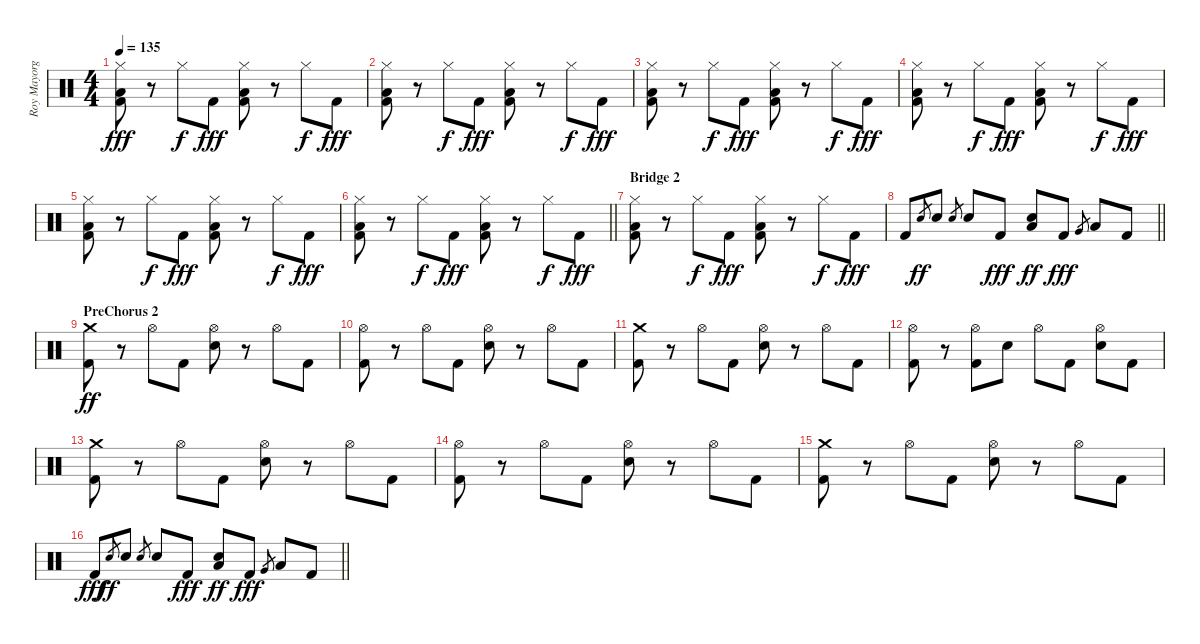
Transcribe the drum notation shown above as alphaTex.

\track ("Roy Mayorga" "Roy Mayorg") {instrument percussion}
\staff {score}
\articulation defaults
\ts (4 4)
\tempo 135
\clef neutral
\ks c
("Hi-Hat (closed)" "Low Floor Tom (hit)" "Kick (hit) 2").8{dy fff} r.8 "Hi-Hat (closed)".8{dy f} "Kick (hit) 2".8{dy fff} ("Hi-Hat (closed)" "Low Tom (hit)" "Kick (hit) 2").8 r.8 "Hi-Hat (closed)".8{dy f} "Kick (hit) 2".8{dy fff} |
("Hi-Hat (closed)" "Low Floor Tom (hit)" "Kick (hit) 2").8 r.8 "Hi-Hat (closed)".8{dy f} "Kick (hit) 2".8{dy fff} ("Hi-Hat (closed)" "Low Tom (hit)" "Kick (hit) 2").8 r.8 "Hi-Hat (closed)".8{dy f} "Kick (hit) 2".8{dy fff} |
("Hi-Hat (closed)" "Low Floor Tom (hit)" "Kick (hit) 2").8 r.8 "Hi-Hat (closed)".8{dy f} "Kick (hit) 2".8{dy fff} ("Hi-Hat (closed)" "Low Tom (hit)" "Kick (hit) 2").8 r.8 "Hi-Hat (closed)".8{dy f} "Kick (hit) 2".8{dy fff} |
("Hi-Hat (closed)" "Low Floor Tom (hit)" "Kick (hit) 2").8 r.8 "Hi-Hat (closed)".8{dy f} "Kick (hit) 2".8{dy fff} ("Hi-Hat (closed)" "Low Tom (hit)" "Kick (hit) 2").8 r.8 "Hi-Hat (closed)".8{dy f} "Kick (hit) 2".8{dy fff} |
("Hi-Hat (closed)" "Low Floor Tom (hit)" "Kick (hit) 2").8 r.8 "Hi-Hat (closed)".8{dy f} "Kick (hit) 2".8{dy fff} ("Hi-Hat (closed)" "Low Tom (hit)" "Kick (hit) 2").8 r.8 "Hi-Hat (closed)".8{dy f} "Kick (hit) 2".8{dy fff} |
\barLineRight lightlight
("Hi-Hat (closed)" "Low Floor Tom (hit)" "Kick (hit) 2").8 r.8 "Hi-Hat (closed)".8{dy f} "Kick (hit) 2".8{dy fff} ("Hi-Hat (closed)" "Low Tom (hit)" "Kick (hit) 2").8 r.8 "Hi-Hat (closed)".8{dy f} "Kick (hit) 2".8{dy fff} |
\section ("" "Bridge 2")
("Hi-Hat (closed)" "Low Floor Tom (hit)" "Kick (hit) 2").8 r.8 "Hi-Hat (closed)".8{dy f} "Kick (hit) 2".8{dy fff} ("Hi-Hat (closed)" "Low Tom (hit)" "Kick (hit) 2").8 r.8 "Hi-Hat (closed)".8{dy f} "Kick (hit) 2".8{dy fff} |
\barLineRight lightlight "Kick (hit) 2".8 "Electric Snare (hit)".8{gr dy ff} "Electric Snare (hit)".8 "Electric Snare (hit)".8{gr} "Electric Snare (hit)".8 "Kick (hit) 2".8{dy fff}
("Electric Snare (hit)" "Low Floor Tom (hit)").8{dy ff} "Kick (hit) 2".8{dy fff} "Very Low Tom (hit)".8{gr} "Low Tom (hit)".8 "Kick (hit) 2".8 |
\section ("" "PreChorus 2")
("Crash medium (hit)" "Kick (hit) 2").8{dy ff} r.8 "Hi-Hat (open)".8 "Kick (hit) 2".8 ("Hi-Hat (open)" "Electric Snare (hit)").8 r.8 "Hi-Hat (open)".8 "Kick (hit) 2".8 |
("Hi-Hat (open)" "Kick (hit) 2").8 r.8 "Hi-Hat (open)".8 "Kick (hit) 2".8 ("Hi-Hat (open)" "Electric Snare (hit)").8 r.8 "Hi-Hat (open)".8 "Kick (hit) 2".8 |
("Crash medium (hit)" "Kick (hit) 2").8 r.8 "Hi-Hat (open)".8 "Kick (hit) 2".8 ("Hi-Hat (open)" "Electric Snare (hit)").8 r.8 "Hi-Hat (open)".8 "Kick (hit) 2".8 |
("Hi-Hat (open)" "Kick (hit) 2").8 r.8 ("Hi-Hat (open)" "Kick (hit) 2").8 "Electric Snare (hit)".8 "Hi-Hat (open)".8 "Kick (hit) 2".8 ("Hi-Hat (open)" "Electric Snare (hit)").8 "Kick (hit) 2".8 |
("Crash medium (hit)" "Kick (hit) 2").8 r.8 "Hi-Hat (open)".8 "Kick (hit) 2".8 ("Hi-Hat (open)" "Electric Snare (hit)").8 r.8 "Hi-Hat (open)".8 "Kick (hit) 2".8 |
("Hi-Hat (open)" "Kick (hit) 2").8 r.8 "Hi-Hat (open)".8 "Kick (hit) 2".8 ("Hi-Hat (open)" "Electric Snare (hit)").8 r.8 "Hi-Hat (open)".8 "Kick (hit) 2".8 |
("Crash medium (hit)" "Kick (hit) 2").8 r.8 "Hi-Hat (open)".8 "Kick (hit) 2".8 ("Hi-Hat (open)" "Electric Snare (hit)").8 r.8 "Hi-Hat (open)".8 "Kick (hit) 2".8 |
\barLineRight lightlight "Kick (hit) 2".8{dy fff} "Electric Snare (hit)".8{gr dy ff} "Electric Snare (hit)".8 "Electric Snare (hit)".8{gr} "Electric Snare (hit)".8 "Kick (hit) 2".8{dy fff}
("Electric Snare (hit)" "Low Floor Tom (hit)").8{dy ff} "Kick (hit) 2".8{dy fff} "Very Low Tom (hit)".8{gr} "Low Tom (hit)".8 "Kick (hit) 2".8
